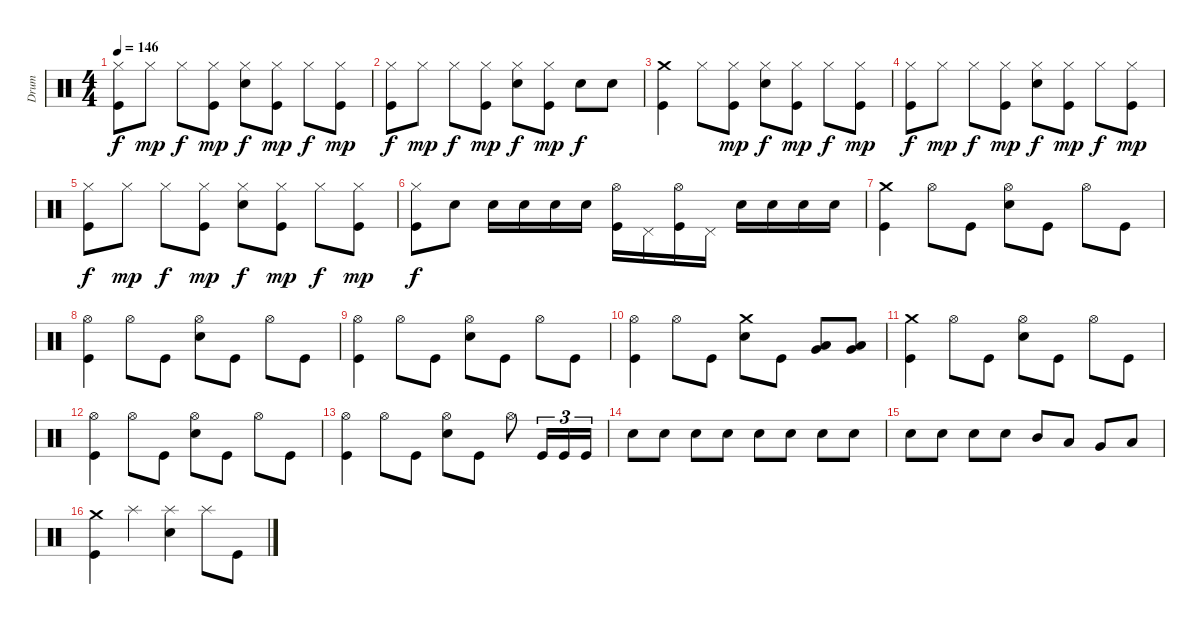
\track ("Drum" "Drum") {instrument percussion}
\staff {score}
\articulation defaults
\ts (4 4)
\tempo 146
\clef neutral
\ks c
("Kick (hit)" "Hi-Hat (closed)").8{dy f} "Hi-Hat (closed)".8{dy mp} "Hi-Hat (closed)".8{dy f} ("Kick (hit)" "Hi-Hat (closed)").8{dy mp} ("Electric Snare (hit)" "Hi-Hat (closed)").8{dy f} ("Kick (hit)" "Hi-Hat (closed)").8{dy mp} "Hi-Hat (closed)".8{dy f} ("Kick (hit)" "Hi-Hat (closed)").8{dy mp} |
("Kick (hit)" "Hi-Hat (closed)").8{dy f} "Hi-Hat (closed)".8{dy mp} "Hi-Hat (closed)".8{dy f} ("Kick (hit)" "Hi-Hat (closed)").8{dy mp} ("Electric Snare (hit)" "Hi-Hat (closed)").8{dy f} ("Kick (hit)" "Hi-Hat (closed)").8{dy mp} "Electric Snare (hit)".8{dy f} "Electric Snare (hit)".8 |
("Kick (hit)" "Crash medium (hit)").4 "Hi-Hat (closed)".8 ("Kick (hit)" "Hi-Hat (closed)").8{dy mp} ("Electric Snare (hit)" "Hi-Hat (closed)").8{dy f} ("Kick (hit)" "Hi-Hat (closed)").8{dy mp} "Hi-Hat (closed)".8{dy f} ("Kick (hit)" "Hi-Hat (closed)").8{dy mp} |
("Kick (hit)" "Hi-Hat (closed)").8{dy f} "Hi-Hat (closed)".8{dy mp} "Hi-Hat (closed)".8{dy f} ("Kick (hit)" "Hi-Hat (closed)").8{dy mp} ("Electric Snare (hit)" "Hi-Hat (closed)").8{dy f} ("Kick (hit)" "Hi-Hat (closed)").8{dy mp} "Hi-Hat (closed)".8{dy f} ("Kick (hit)" "Hi-Hat (closed)").8{dy mp} |
("Kick (hit)" "Hi-Hat (closed)").8{dy f} "Hi-Hat (closed)".8{dy mp} "Hi-Hat (closed)".8{dy f} ("Kick (hit)" "Hi-Hat (closed)").8{dy mp} ("Electric Snare (hit)" "Hi-Hat (closed)").8{dy f} ("Kick (hit)" "Hi-Hat (closed)").8{dy mp} "Hi-Hat (closed)".8{dy f} ("Kick (hit)" "Hi-Hat (closed)").8{dy mp} |
("Kick (hit)" "Hi-Hat (closed)").8{dy f} "Electric Snare (hit)".8 "Electric Snare (hit)".16 "Electric Snare (hit)".16 "Electric Snare (hit)".16 "Electric Snare (hit)".16 ("Kick (hit)" "Hi-Hat (open)").16 "Pedal Hi-Hat (hit)".16 ("Kick (hit)" "Hi-Hat (open)").16 "Pedal Hi-Hat (hit)".16 "Electric Snare (hit)".16 "Electric Snare (hit)".16 "Electric Snare (hit)".16 "Electric Snare (hit)".16 |
("Kick (hit)" "Crash medium (hit)").4 "Hi-Hat (open)".8 "Kick (hit)".8 ("Electric Snare (hit)" "Hi-Hat (open)").8 "Kick (hit)".8 "Hi-Hat (open)".8 "Kick (hit)".8 |
("Kick (hit)" "Hi-Hat (open)").4 "Hi-Hat (open)".8 "Kick (hit)".8 ("Electric Snare (hit)" "Hi-Hat (open)").8 "Kick (hit)".8 "Hi-Hat (open)".8 "Kick (hit)".8 |
("Kick (hit)" "Hi-Hat (open)").4 "Hi-Hat (open)".8 "Kick (hit)".8 ("Electric Snare (hit)" "Hi-Hat (open)").8 "Kick (hit)".8 "Hi-Hat (open)".8 "Kick (hit)".8 |
("Kick (hit)" "Hi-Hat (open)").4 "Hi-Hat (open)".8 "Kick (hit)".8 ("Electric Snare (hit)" "Crash medium (hit)").8 "Kick (hit)".8 ("Low Tom (hit)" "Very Low Tom (hit)").8 ("Low Tom (hit)" "Very Low Tom (hit)").8 |
("Kick (hit)" "Crash medium (hit)").4 "Hi-Hat (open)".8 "Kick (hit)".8 ("Electric Snare (hit)" "Hi-Hat (open)").8 "Kick (hit)".8 "Hi-Hat (open)".8 "Kick (hit)".8 |
("Kick (hit)" "Hi-Hat (open)").4 "Hi-Hat (open)".8 "Kick (hit)".8 ("Electric Snare (hit)" "Hi-Hat (open)").8 "Kick (hit)".8 "Hi-Hat (open)".8 "Kick (hit)".8 |
("Kick (hit)" "Hi-Hat (open)").4 "Hi-Hat (open)".8 "Kick (hit)".8 ("Electric Snare (hit)" "Hi-Hat (open)").8 "Kick (hit)".8 "Hi-Hat (open)".8 "Kick (hit)".16{tu (3 2)} "Kick (hit)".16{tu (3 2)} "Kick (hit)".16{tu (3 2)} |
"Electric Snare (hit)".8 "Electric Snare (hit)".8 "Electric Snare (hit)".8 "Electric Snare (hit)".8 "Electric Snare (hit)".8 "Electric Snare (hit)".8 "Electric Snare (hit)".8 "Electric Snare (hit)".8 |
"Electric Snare (hit)".8 "Electric Snare (hit)".8 "Electric Snare (hit)".8 "Electric Snare (hit)".8 "Mid Tom (hit)".8 "Low Tom (hit)".8 "Very Low Tom (hit)".8 "Low Floor Tom (hit)".8 |
("Kick (hit)" "Crash medium (hit)").4 "Splash (hit)".4 ("Electric Snare (hit)" "Splash (hit)").4 "Splash (hit)".8 "Kick (hit)".8
